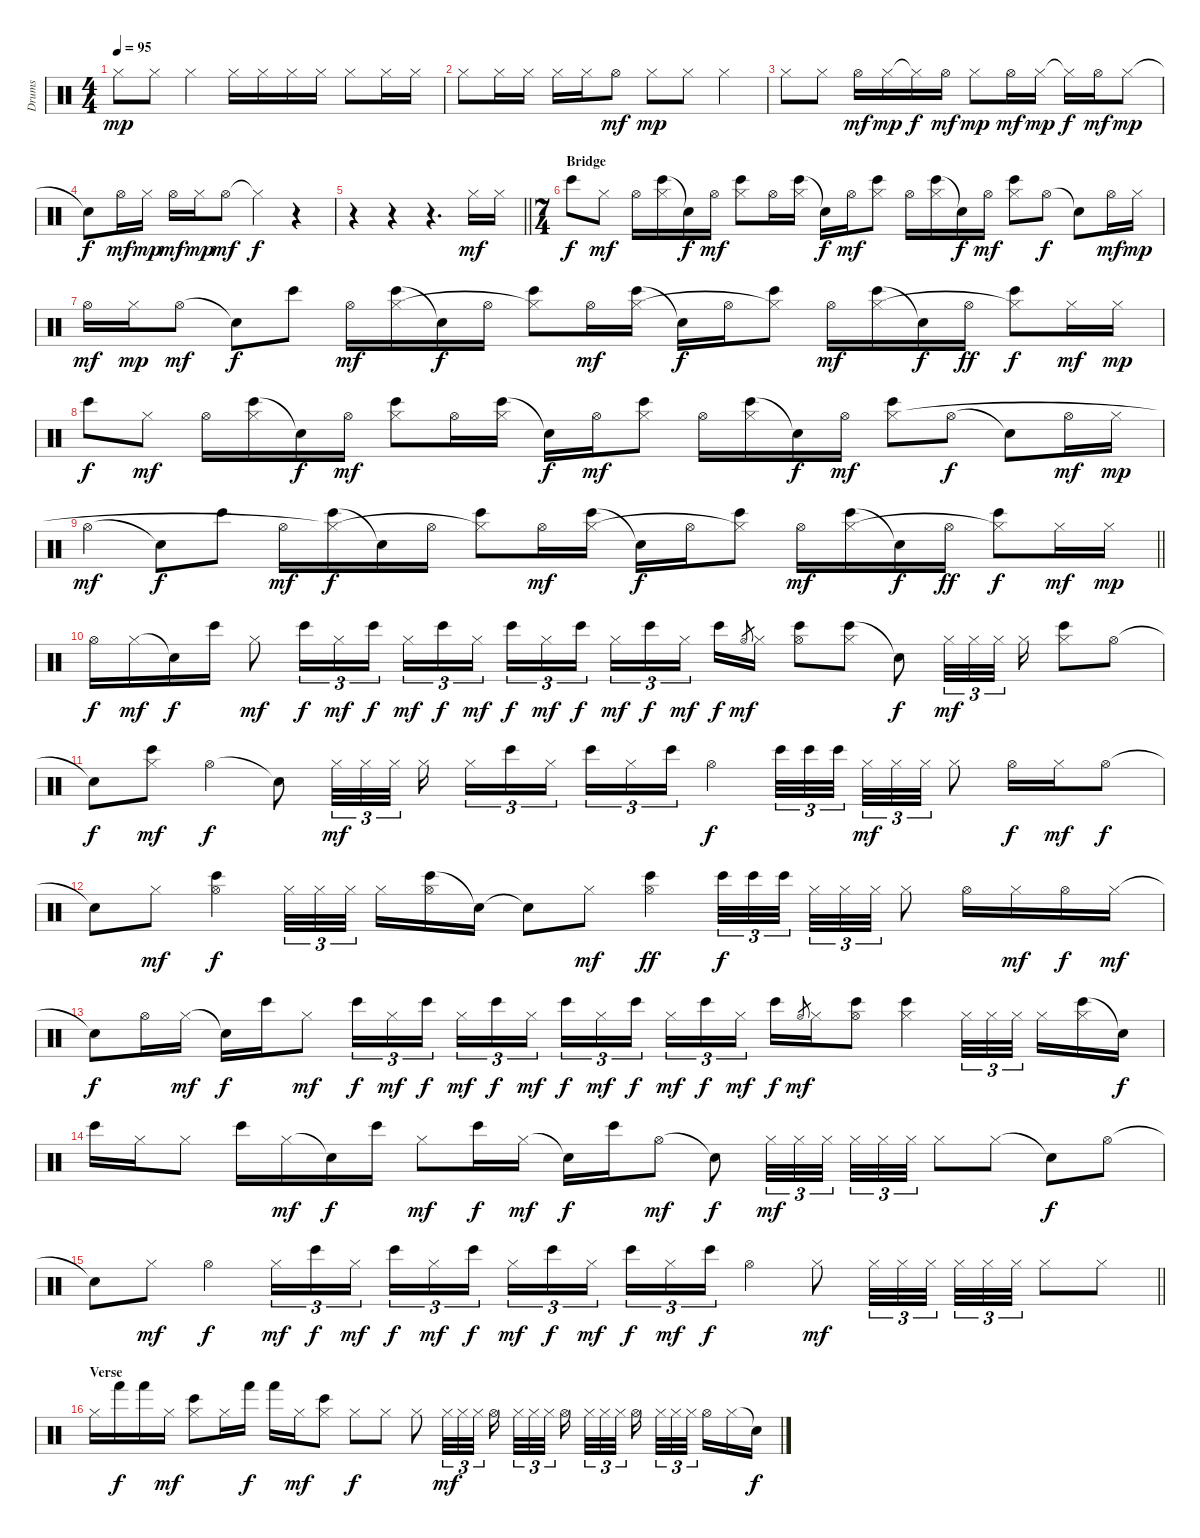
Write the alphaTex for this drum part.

\track ("Drums" "Drums") {instrument percussion}
\staff {score}
\articulation defaults
\ts (4 4)
\tempo 95
\clef neutral
\ks c "Hi-Hat (closed)".8{dy mp} "Hi-Hat (closed)".8 "Hi-Hat (closed)".4 "Hi-Hat (closed)".16 "Hi-Hat (closed)".16 "Hi-Hat (closed)".16 "Hi-Hat (closed)".16 "Hi-Hat (closed)".8 "Hi-Hat (closed)".16 "Hi-Hat (closed)".16
|
"Hi-Hat (closed)".8 "Hi-Hat (closed)".16 "Hi-Hat (closed)".16 "Hi-Hat (closed)".16 "Hi-Hat (closed)".16 "Hi-Hat (open)".8{dy mf} "Hi-Hat (closed)".8{dy mp} "Hi-Hat (closed)".8 "Hi-Hat (closed)".4 |
"Hi-Hat (closed)".8 "Hi-Hat (closed)".8 "Hi-Hat (open)".16{dy mf} "Hi-Hat (closed)".16{dy mp} "Hi-Hat (closed)"{t}.16{dy f} "Hi-Hat (open)".16{dy mf} "Hi-Hat (closed)".8{dy mp} "Hi-Hat (open)".16{dy mf} "Hi-Hat (closed)".16{dy mp} "Hi-Hat (closed)"{t}.16{dy f} "Hi-Hat (open)".16{dy mf} "Hi-Hat (closed)".8{dy mp} |
"Snare (hit)"{t}.8{dy f} "Hi-Hat (open)".16{dy mf} "Hi-Hat (closed)".16{dy mp} "Hi-Hat (open)".16{dy mf} "Hi-Hat (closed)".16{dy mp} "Hi-Hat (open)".8{dy mf} "Hi-Hat (closed)"{t}.4{dy f} r.4 |
\barLineRight lightlight
r.4 r.4 r.4{d} "Hi-Hat (closed)".16{dy mf} "Hi-Hat (closed)".16 |
\ts (7 4)
\section ("" "Bridge")
"Bongo High (hit)".8{dy f} "Hi-Hat (closed)".8{dy mf} "Hi-Hat (open)".16 ("Bongo High (hit)" "Hi-Hat (closed)").16 "Snare (hit)"{t}.16{dy f} "Hi-Hat (open)".16{dy mf} ("Bongo High (hit)" "Hi-Hat (closed)").8 "Hi-Hat (open)".16 ("Bongo High (hit)" "Hi-Hat (closed)").16 "Snare (hit)"{t}.16{dy f} "Hi-Hat (open)".16{dy mf} ("Bongo High (hit)" "Hi-Hat (closed)").8 "Hi-Hat (open)".16 ("Bongo High (hit)" "Hi-Hat (closed)").16 "Snare (hit)"{t}.16{dy f} "Hi-Hat (open)".16{dy mf} ("Bongo High (hit)" "Hi-Hat (closed)").8 "Hi-Hat (open)".8{dy f} "Snare (hit)"{t}.8 "Hi-Hat (open)".16{dy mf} "Hi-Hat (closed)".16{dy mp} |
"Hi-Hat (open)".16{dy mf} "Hi-Hat (closed)".16{dy mp} "Hi-Hat (open)".8{dy mf} "Snare (hit)"{t}.8{dy f} "Bongo High (hit)".8 "Hi-Hat (open)".16{dy mf} ("Bongo High (hit)" "Hi-Hat (closed)").16 "Snare (hit)"{t}.16{dy f} "Hi-Hat (open)".16 ("Bongo High (hit)" "Hi-Hat (closed)"{t}).8 "Hi-Hat (open)".16{dy mf} ("Bongo High (hit)" "Hi-Hat (closed)").16 "Snare (hit)"{t}.16{dy f} "Hi-Hat (open)".16 ("Bongo High (hit)" "Hi-Hat (closed)"{t}).8 "Hi-Hat (open)".16{dy mf} ("Bongo High (hit)" "Hi-Hat (closed)").16 "Snare (hit)"{t}.16{dy f} "Hi-Hat (open)".16{dy ff} ("Bongo High (hit)" "Hi-Hat (closed)"{t}).8{dy f} "Hi-Hat (closed)".16{dy mf} "Hi-Hat (closed)".16{dy mp} |
"Bongo High (hit)".8{dy f} "Hi-Hat (closed)".8{dy mf} "Hi-Hat (open)".16 ("Bongo High (hit)" "Hi-Hat (closed)").16 "Snare (hit)"{t}.16{dy f} "Hi-Hat (open)".16{dy mf} ("Bongo High (hit)" "Hi-Hat (closed)").8 "Hi-Hat (open)".16 ("Bongo High (hit)" "Hi-Hat (closed)").16 "Snare (hit)"{t}.16{dy f} "Hi-Hat (open)".16{dy mf} ("Bongo High (hit)" "Hi-Hat (closed)").8 "Hi-Hat (open)".16 ("Bongo High (hit)" "Hi-Hat (closed)").16 "Snare (hit)"{t}.16{dy f} "Hi-Hat (open)".16{dy mf} ("Bongo High (hit)" "Hi-Hat (closed)").8 "Hi-Hat (open)".8{dy f} "Snare (hit)"{t}.8 "Hi-Hat (open)".16{dy mf} "Hi-Hat (closed)".16{dy mp} |
\barLineRight lightlight "Hi-Hat (open)".4{dy mf} "Snare (hit)"{t}.8{dy f} "Bongo High (hit)".8 "Hi-Hat (open)".16{dy mf}
("Bongo High (hit)" "Hi-Hat (closed)"{t}).16{dy f} "Snare (hit)"{t}.16 "Hi-Hat (open)".16 ("Bongo High (hit)" "Hi-Hat (closed)"{t}).8 "Hi-Hat (open)".16{dy mf} ("Bongo High (hit)" "Hi-Hat (closed)").16 "Snare (hit)"{t}.16{dy f} "Hi-Hat (open)".16 ("Bongo High (hit)" "Hi-Hat (closed)"{t}).8 "Hi-Hat (open)".16{dy mf} ("Bongo High (hit)" "Hi-Hat (closed)").16 "Snare (hit)"{t}.16{dy f} "Hi-Hat (open)".16{dy ff} ("Bongo High (hit)" "Hi-Hat (closed)"{t}).8{dy f} "Hi-Hat (closed)".16{dy mf} "Hi-Hat (closed)".16{dy mp} |
\section ("" "")
"Hi-Hat (open)".16{dy f} "Hi-Hat (closed)".16{dy mf} "Snare (hit)"{t}.16{dy f} "Bongo High (hit)".16 "Hi-Hat (closed)".8{dy mf} "Bongo High (hit)".16{tu (3 2) dy f} "Hi-Hat (closed)".16{tu (3 2) dy mf} "Bongo High (hit)".16{tu (3 2) dy f} "Hi-Hat (closed)".16{tu (3 2) dy mf} "Bongo High (hit)".16{tu (3 2) dy f} "Hi-Hat (closed)".16{tu (3 2) dy mf beam splitsecondary} "Bongo High (hit)".16{tu (3 2) dy f} "Hi-Hat (closed)".16{tu (3 2) dy mf} "Bongo High (hit)".16{tu (3 2) dy f} "Hi-Hat (closed)".16{tu (3 2) dy mf} "Bongo High (hit)".16{tu (3 2) dy f} "Hi-Hat (closed)".16{tu (3 2) dy mf beam splitsecondary} "Bongo High (hit)".16{dy f} "Hi-Hat (open)".8{gr dy mf} "Hi-Hat (closed)".16 ("Bongo High (hit)" "Hi-Hat (open)").8 ("Bongo High (hit)" "Hi-Hat (closed)").8 "Snare (hit)"{t}.8{dy f} "Hi-Hat (closed)".32{tu (3 2) dy mf} "Hi-Hat (closed)".32{tu (3 2)} "Hi-Hat (closed)".32{tu (3 2) beam splitsecondary} "Hi-Hat (closed)".16 ("Bongo High (hit)" "Hi-Hat (closed)").8 "Hi-Hat (open)".8 |
"Snare (hit)"{t}.8{dy f} ("Bongo High (hit)" "Hi-Hat (closed)").8{dy mf} "Hi-Hat (open)".4{dy f} "Snare (hit)"{t}.8 "Hi-Hat (closed)".32{tu (3 2) dy mf} "Hi-Hat (closed)".32{tu (3 2)} "Hi-Hat (closed)".32{tu (3 2) beam splitsecondary} "Hi-Hat (closed)".16 "Hi-Hat (closed)".16{tu (3 2)} "Bongo High (hit)".16{tu (3 2)} "Hi-Hat (closed)".16{tu (3 2) beam splitsecondary} "Bongo High (hit)".16{tu (3 2)} "Hi-Hat (closed)".16{tu (3 2)} "Bongo High (hit)".16{tu (3 2)} "Hi-Hat (open)".4{dy f} "Bongo High (hit)".32{tu (3 2)} "Bongo High (hit)".32{tu (3 2)} "Bongo High (hit)".32{tu (3 2) beam splitsecondary} "Hi-Hat (closed)".32{tu (3 2) dy mf} "Hi-Hat (closed)".32{tu (3 2)} "Hi-Hat (closed)".32{tu (3 2)} "Hi-Hat (closed)".8 "Hi-Hat (open)".16{dy f} "Hi-Hat (closed)".16{dy mf} "Hi-Hat (open)".8{dy f} |
"Snare (hit)"{t}.8 "Hi-Hat (closed)".8{dy mf} ("Bongo High (hit)" "Hi-Hat (open)").4{dy f} "Hi-Hat (closed)".32{tu (3 2)} "Hi-Hat (closed)".32{tu (3 2)} "Hi-Hat (closed)".32{tu (3 2) beam splitsecondary} "Hi-Hat (closed)".16 ("Bongo High (hit)" "Hi-Hat (open)").16 "Snare (hit)"{t}.16 "Snare (hit)"{t}.8 "Hi-Hat (closed)".8{dy mf} ("Bongo High (hit)" "Hi-Hat (open)").4{dy ff} "Bongo High (hit)".32{tu (3 2) dy f} "Bongo High (hit)".32{tu (3 2)} "Bongo High (hit)".32{tu (3 2) beam splitsecondary} "Hi-Hat (closed)".32{tu (3 2)} "Hi-Hat (closed)".32{tu (3 2)} "Hi-Hat (closed)".32{tu (3 2)} "Hi-Hat (closed)".8 "Hi-Hat (open)".16 "Hi-Hat (closed)".16{dy mf} "Hi-Hat (open)".16{dy f} "Hi-Hat (closed)".16{dy mf} |
"Snare (hit)"{t}.8{dy f} "Hi-Hat (open)".16 "Hi-Hat (closed)".16{dy mf} "Snare (hit)"{t}.16{dy f} "Bongo High (hit)".16 "Hi-Hat (closed)".8{dy mf} "Bongo High (hit)".16{tu (3 2) dy f} "Hi-Hat (closed)".16{tu (3 2) dy mf} "Bongo High (hit)".16{tu (3 2) dy f beam splitsecondary} "Hi-Hat (closed)".16{tu (3 2) dy mf} "Bongo High (hit)".16{tu (3 2) dy f} "Hi-Hat (closed)".16{tu (3 2) dy mf} "Bongo High (hit)".16{tu (3 2) dy f} "Hi-Hat (closed)".16{tu (3 2) dy mf} "Bongo High (hit)".16{tu (3 2) dy f beam splitsecondary} "Hi-Hat (closed)".16{tu (3 2) dy mf} "Bongo High (hit)".16{tu (3 2) dy f} "Hi-Hat (closed)".16{tu (3 2) dy mf} "Bongo High (hit)".16{dy f} "Hi-Hat (open)".8{gr dy mf} "Hi-Hat (closed)".16 ("Bongo High (hit)" "Hi-Hat (open)").8 ("Bongo High (hit)" "Hi-Hat (closed)").4 "Hi-Hat (closed)".32{tu (3 2)} "Hi-Hat (closed)".32{tu (3 2)} "Hi-Hat (closed)".32{tu (3 2) beam splitsecondary} "Hi-Hat (closed)".16 ("Bongo High (hit)" "Hi-Hat (closed)").16 "Snare (hit)"{t}.16{dy f} |
"Bongo High (hit)".16 "Hi-Hat (closed)".16 "Hi-Hat (closed)".8 "Bongo High (hit)".16 "Hi-Hat (closed)".16{dy mf} "Snare (hit)"{t}.16{dy f} "Bongo High (hit)".16 "Hi-Hat (closed)".8{dy mf} "Bongo High (hit)".16{dy f} "Hi-Hat (closed)".16{dy mf} "Snare (hit)"{t}.16{dy f} "Bongo High (hit)".16 "Hi-Hat (open)".8{dy mf} "Snare (hit)"{t}.8{dy f} "Hi-Hat (closed)".32{tu (3 2) dy mf} "Hi-Hat (closed)".32{tu (3 2)} "Hi-Hat (closed)".32{tu (3 2) beam splitsecondary} "Hi-Hat (closed)".32{tu (3 2)} "Hi-Hat (closed)".32{tu (3 2)} "Hi-Hat (closed)".32{tu (3 2)} "Hi-Hat (closed)".8 "Hi-Hat (closed)".8 "Snare (hit)"{t}.8{dy f} "Hi-Hat (open)".8 |
\barLineRight lightlight "Snare (hit)"{t}.8 "Hi-Hat (closed)".8{dy mf} "Hi-Hat (open)".4{dy f} "Hi-Hat (closed)".16{tu (3 2) dy mf} "Bongo High (hit)".16{tu (3 2) dy f} "Hi-Hat (closed)".16{tu (3 2) dy mf beam splitsecondary} "Bongo High (hit)".16{tu (3 2) dy f} "Hi-Hat (closed)".16{tu (3 2) dy mf} "Bongo High (hit)".16{tu (3 2) dy f} "Hi-Hat (closed)".16{tu (3 2) dy mf} "Bongo High (hit)".16{tu (3 2) dy f} "Hi-Hat (closed)".16{tu (3 2) dy mf beam splitsecondary} "Bongo High (hit)".16{tu (3 2) dy f} "Hi-Hat (closed)".16{tu (3 2) dy mf} "Bongo High (hit)".16{tu (3 2) dy f} "Hi-Hat (open)".4 "Hi-Hat (closed)".8{dy mf} "Hi-Hat (closed)".32{tu (3 2)} "Hi-Hat (closed)".32{tu (3 2)} "Hi-Hat (closed)".32{tu (3 2) beam splitsecondary} "Hi-Hat (closed)".32{tu (3 2)} "Hi-Hat (closed)".32{tu (3 2)} "Hi-Hat (closed)".32{tu (3 2)} "Hi-Hat (closed)".8 "Hi-Hat (closed)".8
|
\section ("" "Verse")
"Hi-Hat (closed)".16 "Hand (hit)".16{dy f} "Hand (hit)".16 "Hi-Hat (closed)".16{dy mf} ("Bongo High (hit)" "Hi-Hat (closed)").8 "Hi-Hat (closed)".16 "Hand (hit)".16{dy f} "Hand (hit)".16 "Hi-Hat (closed)".16{dy mf} ("Bongo High (hit)" "Hi-Hat (closed)").8 "Hi-Hat (closed)".8{dy f} "Hi-Hat (closed)".8 "Hi-Hat (closed)".8 "Hi-Hat (closed)".32{tu (3 2) dy mf} "Hi-Hat (closed)".32{tu (3 2)} "Hi-Hat (closed)".32{tu (3 2) beam splitsecondary} "Hi-Hat (open)".16 "Hi-Hat (closed)".32{tu (3 2)} "Hi-Hat (closed)".32{tu (3 2)} "Hi-Hat (closed)".32{tu (3 2) beam splitsecondary} "Hi-Hat (open)".16{beam splitsecondary} "Hi-Hat (closed)".32{tu (3 2)} "Hi-Hat (closed)".32{tu (3 2)} "Hi-Hat (closed)".32{tu (3 2) beam splitsecondary} "Hi-Hat (open)".16 "Hi-Hat (closed)".32{tu (3 2)} "Hi-Hat (closed)".32{tu (3 2)} "Hi-Hat (closed)".32{tu (3 2) beam splitsecondary} "Hi-Hat (open)".16 "Hi-Hat (closed)".16 "Snare (hit)"{t}.16{dy f}
